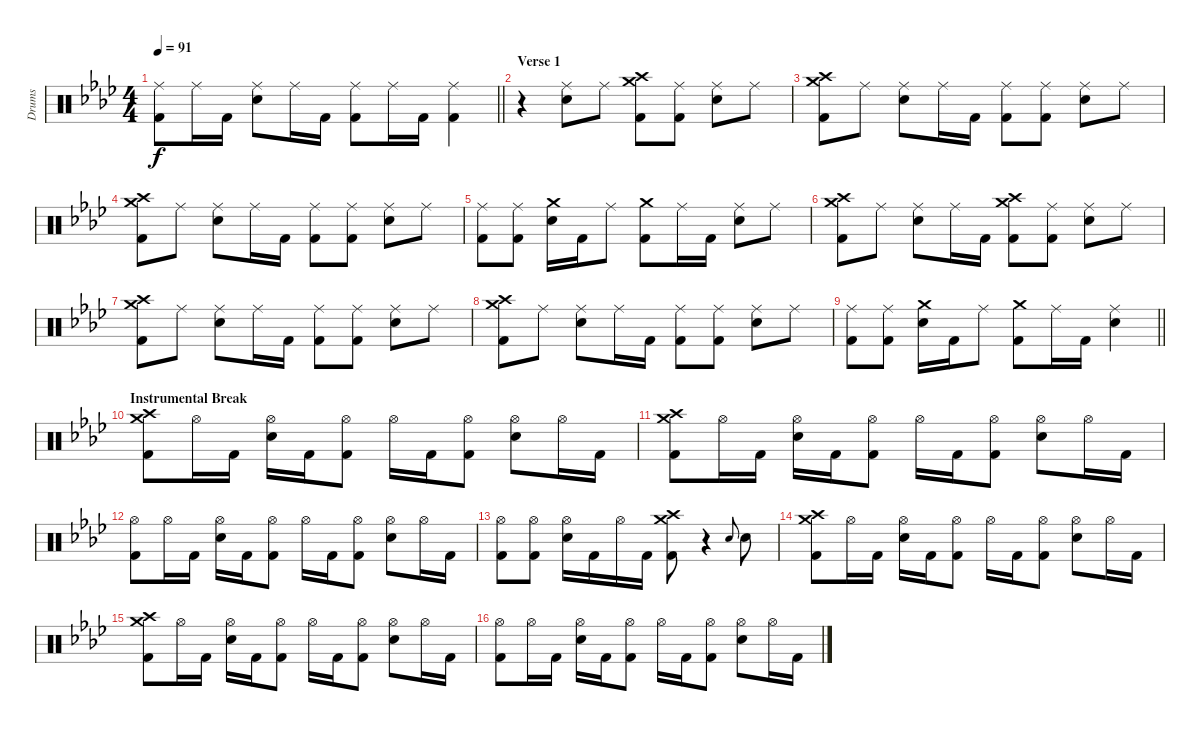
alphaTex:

\track ("Drums" "Drums") {instrument percussion}
\staff {score}
\articulation defaults
\ts (4 4)
\tempo 91
\clef neutral
\barLineRight lightlight
\ks fminor
("Ride (middle)" "Kick (hit) 2").8{dy f} "Ride (middle)".16 "Kick (hit) 2".16 ("Ride (middle)" "Electric Snare (hit)").8 "Ride (middle)".16 "Kick (hit) 2".16 ("Ride (middle)" "Kick (hit) 2").8 "Ride (middle)".16 "Kick (hit) 2".16 ("Ride (middle)" "Kick (hit) 2").4 |
\section ("" "Verse 1")
r.4 ("Ride (middle)" "Electric Snare (hit)").8 "Ride (middle)".8 ("Crash medium (hit)" "Crash high (hit)" "Kick (hit) 2").8 ("Ride (middle)" "Kick (hit) 2").8 ("Ride (middle)" "Electric Snare (hit)").8 "Ride (middle)".8 |
("Crash medium (hit)" "Crash high (hit)" "Kick (hit) 2").8 "Ride (middle)".8 ("Ride (middle)" "Electric Snare (hit)").8 "Ride (middle)".16 "Kick (hit) 2".16 ("Ride (middle)" "Kick (hit) 2").8 ("Ride (middle)" "Kick (hit) 2").8 ("Ride (middle)" "Electric Snare (hit)").8 "Ride (middle)".8 |
("Crash medium (hit)" "Crash high (hit)" "Kick (hit) 2").8 "Ride (middle)".8 ("Ride (middle)" "Electric Snare (hit)").8 "Ride (middle)".16 "Kick (hit) 2".16 ("Ride (middle)" "Kick (hit) 2").8 ("Ride (middle)" "Kick (hit) 2").8 ("Ride (middle)" "Electric Snare (hit)").8 "Ride (middle)".8 |
("Ride (middle)" "Kick (hit) 2").8 ("Ride (middle)" "Kick (hit) 2").8 ("Crash medium (hit)" "Electric Snare (hit)").16 "Kick (hit) 2".16 "Ride (middle)".8 ("Crash medium (hit)" "Kick (hit) 2").8 "Ride (middle)".16 "Kick (hit) 2".16 ("Ride (middle)" "Electric Snare (hit)").8 "Ride (middle)".8 |
("Crash medium (hit)" "Crash high (hit)" "Kick (hit) 2").8 "Ride (middle)".8 ("Ride (middle)" "Electric Snare (hit)").8 "Ride (middle)".16 "Kick (hit) 2".16 ("Crash medium (hit)" "Crash high (hit)" "Kick (hit) 2").8 ("Ride (middle)" "Kick (hit) 2").8 ("Ride (middle)" "Electric Snare (hit)").8 "Ride (middle)".8 |
("Crash medium (hit)" "Crash high (hit)" "Kick (hit) 2").8 "Ride (middle)".8 ("Ride (middle)" "Electric Snare (hit)").8 "Ride (middle)".16 "Kick (hit) 2".16 ("Ride (middle)" "Kick (hit) 2").8 ("Ride (middle)" "Kick (hit) 2").8 ("Ride (middle)" "Electric Snare (hit)").8 "Ride (middle)".8 |
("Crash medium (hit)" "Crash high (hit)" "Kick (hit) 2").8 "Ride (middle)".8 ("Ride (middle)" "Electric Snare (hit)").8 "Ride (middle)".16 "Kick (hit) 2".16 ("Ride (middle)" "Kick (hit) 2").8 ("Ride (middle)" "Kick (hit) 2").8 ("Ride (middle)" "Electric Snare (hit)").8 "Ride (middle)".8 |
\barLineRight lightlight
("Ride (middle)" "Kick (hit) 2").8 ("Ride (middle)" "Kick (hit) 2").8 ("Crash medium (hit)" "Electric Snare (hit)").16 "Kick (hit) 2".16 "Ride (middle)".8 ("Crash medium (hit)" "Kick (hit) 2").8 "Ride (middle)".16 "Kick (hit) 2".16 ("Ride (middle)" "Electric Snare (hit)").4 |
\section ("" "Instrumental Break")
("Crash medium (hit)" "Crash high (hit)" "Kick (hit) 2").8 "Hi-Hat (open)".16 "Kick (hit) 2".16 ("Hi-Hat (open)" "Electric Snare (hit)").16 "Kick (hit) 2".16 ("Hi-Hat (open)" "Kick (hit) 2").8 "Hi-Hat (open)".16 "Kick (hit) 2".16 ("Hi-Hat (open)" "Kick (hit) 2").8 ("Hi-Hat (open)" "Electric Snare (hit)").8 "Hi-Hat (open)".16 "Kick (hit) 2".16 |
("Crash medium (hit)" "Crash high (hit)" "Kick (hit) 2").8 "Hi-Hat (open)".16 "Kick (hit) 2".16 ("Hi-Hat (open)" "Electric Snare (hit)").16 "Kick (hit) 2".16 ("Hi-Hat (open)" "Kick (hit) 2").8 "Hi-Hat (open)".16 "Kick (hit) 2".16 ("Hi-Hat (open)" "Kick (hit) 2").8 ("Hi-Hat (open)" "Electric Snare (hit)").8 "Hi-Hat (open)".16 "Kick (hit) 2".16 |
("Hi-Hat (open)" "Kick (hit) 2").8 "Hi-Hat (open)".16 "Kick (hit) 2".16 ("Hi-Hat (open)" "Electric Snare (hit)").16 "Kick (hit) 2".16 ("Hi-Hat (open)" "Kick (hit) 2").8 "Hi-Hat (open)".16 "Kick (hit) 2".16 ("Hi-Hat (open)" "Kick (hit) 2").8 ("Hi-Hat (open)" "Electric Snare (hit)").8 "Hi-Hat (open)".16 "Kick (hit) 2".16 |
("Hi-Hat (open)" "Kick (hit) 2").8 ("Hi-Hat (open)" "Kick (hit) 2").8 ("Hi-Hat (open)" "Electric Snare (hit)").16 "Kick (hit) 2".16 "Hi-Hat (open)".16 "Kick (hit) 2".16 ("Crash medium (hit)" "Crash high (hit)" "Kick (hit) 2").8 r.4 "Electric Snare (hit)".8{gr onbeat} "Electric Snare (hit)".8 |
("Crash medium (hit)" "Crash high (hit)" "Kick (hit) 2").8 "Hi-Hat (open)".16 "Kick (hit) 2".16 ("Hi-Hat (open)" "Electric Snare (hit)").16 "Kick (hit) 2".16 ("Hi-Hat (open)" "Kick (hit) 2").8 "Hi-Hat (open)".16 "Kick (hit) 2".16 ("Hi-Hat (open)" "Kick (hit) 2").8 ("Hi-Hat (open)" "Electric Snare (hit)").8 "Hi-Hat (open)".16 "Kick (hit) 2".16 |
("Crash medium (hit)" "Crash high (hit)" "Kick (hit) 2").8 "Hi-Hat (open)".16 "Kick (hit) 2".16 ("Hi-Hat (open)" "Electric Snare (hit)").16 "Kick (hit) 2".16 ("Hi-Hat (open)" "Kick (hit) 2").8 "Hi-Hat (open)".16 "Kick (hit) 2".16 ("Hi-Hat (open)" "Kick (hit) 2").8 ("Hi-Hat (open)" "Electric Snare (hit)").8 "Hi-Hat (open)".16 "Kick (hit) 2".16 |
("Hi-Hat (open)" "Kick (hit) 2").8 "Hi-Hat (open)".16 "Kick (hit) 2".16 ("Hi-Hat (open)" "Electric Snare (hit)").16 "Kick (hit) 2".16 ("Hi-Hat (open)" "Kick (hit) 2").8 "Hi-Hat (open)".16 "Kick (hit) 2".16 ("Hi-Hat (open)" "Kick (hit) 2").8 ("Hi-Hat (open)" "Electric Snare (hit)").8 "Hi-Hat (open)".16 "Kick (hit) 2".16
